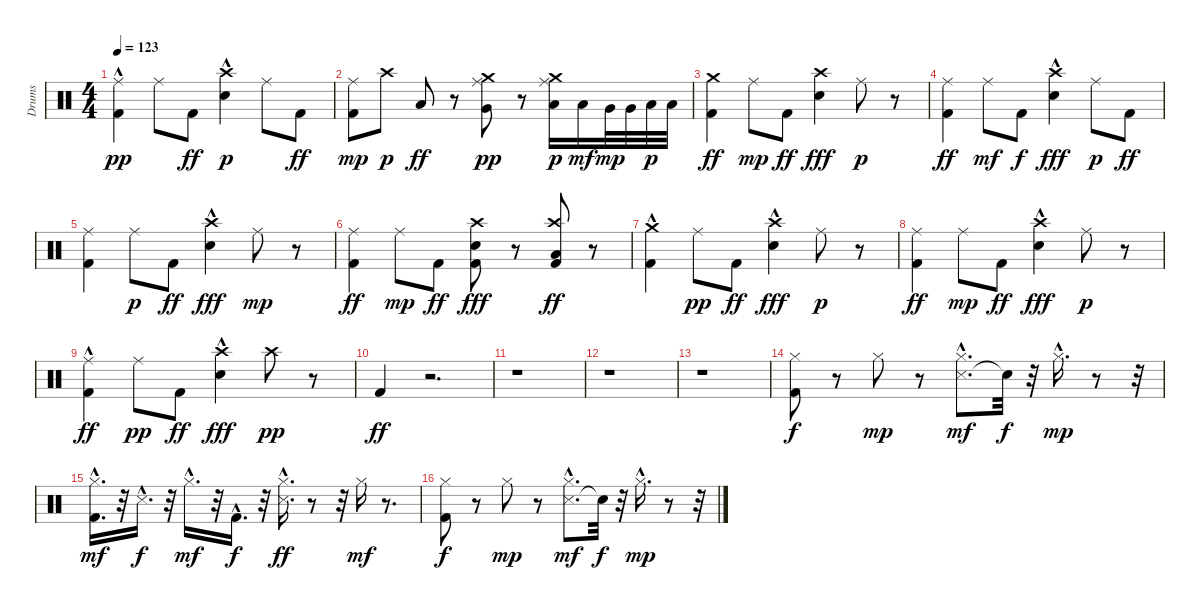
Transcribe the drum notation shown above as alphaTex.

\track ("Drums" "Drums") {instrument percussion}
\staff {score}
\articulation defaults
\ts (4 4)
\tempo 123
\clef neutral
\ks c
("Kick (hit) 2"{hac} "Ride (middle)").4{dy pp} "Ride (middle)".8 "Kick (hit) 2".8{dy ff} ("Electric Snare (hit)"{hac} "Crash high (hit)").4{dy p} "Ride (middle)".8 "Kick (hit) 2".8{dy ff} |
("Kick (hit) 2" "Ride (middle)").8{dy mp} "Crash high (hit)".8{dy p} "Low Tom (hit)".8{dy ff} r.8 ("Very Low Tom (hit)" "Ride (middle)" "Crash medium (hit)").8{dy pp} r.8 ("Low Tom (hit)" "Ride (middle)" "Crash medium (hit)").16{dy p} "Low Tom (hit)".16{dy mf} "Very Low Tom (hit)".32{dy mp} "Very Low Tom (hit)".32 "Low Floor Tom (hit)".32{dy p} "Low Floor Tom (hit)".32 |
("Crash medium (hit)" "Kick (hit) 2").4{dy ff} "Ride (middle)".8{dy mp} "Kick (hit) 2".8{dy ff} ("Crash high (hit)" "Electric Snare (hit)").4{dy fff} "Ride (middle)".8{dy p} r.8 |
("Ride (middle)" "Kick (hit) 2").4{dy ff} "Ride (middle)".8{dy mf} "Kick (hit) 2".8{dy f} ("Crash high (hit)" "Electric Snare (hit)"{hac}).4{dy fff} "Ride (middle)".8{dy p} "Kick (hit) 2".8{dy ff} |
("Ride (middle)" "Kick (hit) 2").4 "Ride (middle)".8{dy p} "Kick (hit) 2".8{dy ff} ("Crash high (hit)" "Electric Snare (hit)"{hac}).4{dy fff} "Ride (middle)".8{dy mp} r.8 |
("Ride (middle)" "Kick (hit) 2").4{dy ff} "Ride (middle)".8{dy mp} "Kick (hit) 2".8{dy ff} ("Crash high (hit)" "Electric Snare (hit)" "Kick (hit) 2").8{dy fff} r.8 ("Crash high (hit)" "Low Floor Tom (hit)" "Kick (hit) 2").8{dy ff} r.8 |
("Crash medium (hit)" "Kick (hit) 2"{hac}).4 "Ride (middle)".8{dy pp} "Kick (hit) 2".8{dy ff} ("Crash high (hit)" "Electric Snare (hit)"{hac}).4{dy fff} "Ride (middle)".8{dy p} r.8 |
("Ride (middle)" "Kick (hit) 2").4{dy ff} "Ride (middle)".8{dy mp} "Kick (hit) 2".8{dy ff} ("Crash high (hit)" "Electric Snare (hit)"{hac}).4{dy fff} "Ride (middle)".8{dy p} r.8 |
("Ride (middle)" "Kick (hit) 2"{hac}).4{dy ff} "Ride (middle)".8{dy pp} "Kick (hit) 2".8{dy ff} ("Crash high (hit)" "Electric Snare (hit)"{hac}).4{dy fff} "Crash high (hit)".8{dy pp} r.8 |
"Kick (hit) 2".4{dy ff} r.2{d} |
r.1 |
r.1 |
r.1 |
("Kick (hit) 2" "Hi-Hat (closed)").8{dy f} r.8 "Hi-Hat (closed)".8{dy mp} r.8 ("Snare (side stick) 3"{hac} "Hi-Hat (closed)"{hac}).8{d dy mf} "Snare (hit)"{t}.32{dy f} r.32 "Hi-Hat (closed)"{hac}.16{d dy mp} r.8 r.32 |
("Kick (hit) 2" "Hi-Hat (closed)"{hac}).16{d dy mf} r.32 "Snare (side stick) 3"{hac}.16{d dy f} r.32 "Hi-Hat (closed)"{hac}.16{d dy mf} r.32 "Kick (hit) 2"{hac}.16{d dy f} r.32 ("Snare (side stick) 3" "Hi-Hat (closed)"{hac}).16{d dy ff} r.8 r.32 "Hi-Hat (closed)".16{dy mf} r.8{d} |
("Kick (hit) 2" "Hi-Hat (closed)").8{dy f} r.8 "Hi-Hat (closed)".8{dy mp} r.8 ("Snare (side stick) 3"{hac} "Hi-Hat (closed)"{hac}).8{d dy mf} "Snare (hit)"{t}.32{dy f} r.32 "Hi-Hat (closed)"{hac}.16{d dy mp} r.8 r.32
